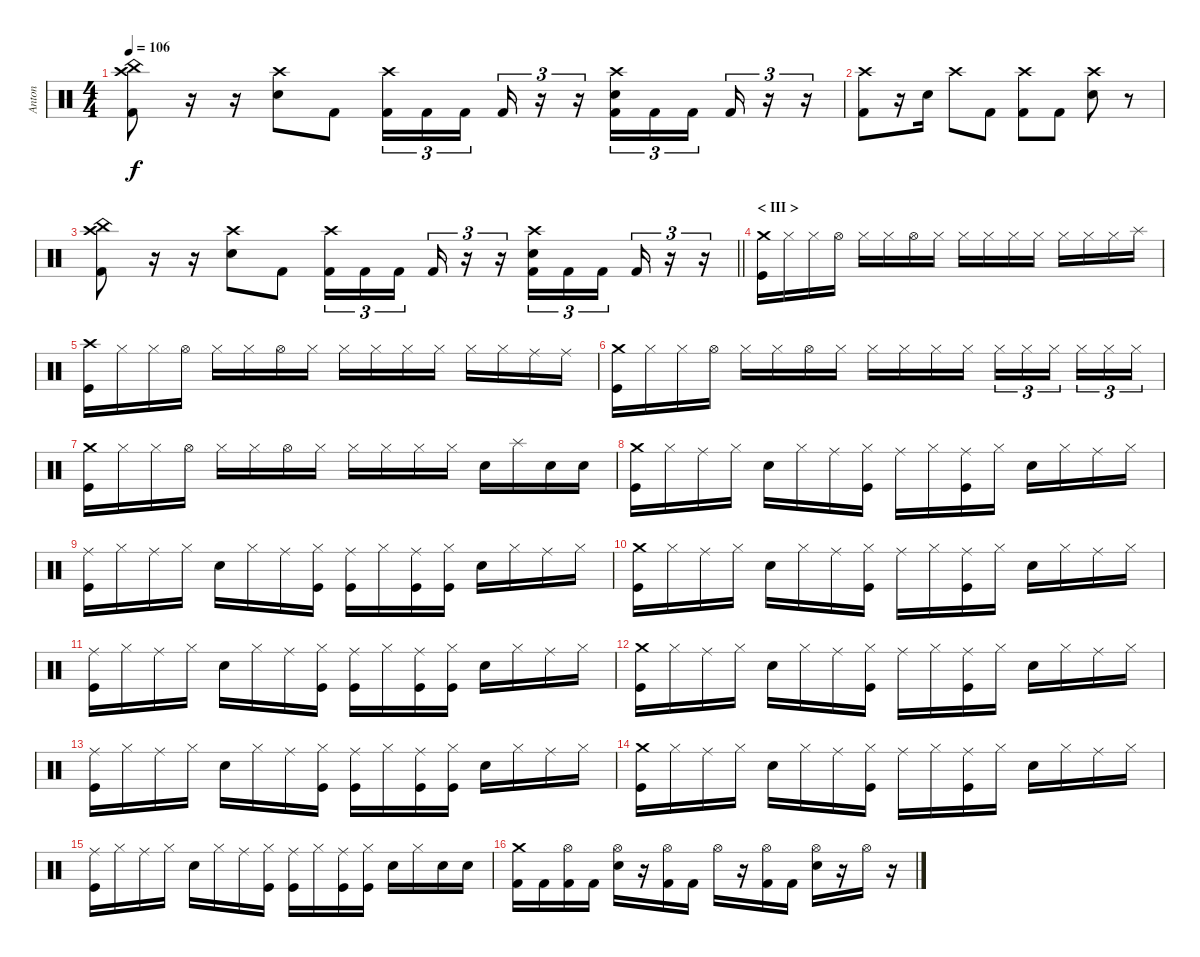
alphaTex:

\track ("Anton" "Anton") {instrument percussion}
\staff
\articulation defaults
\ts (4 4)
\tempo 106
\clef neutral
\ks c
("China (hit)" "Crash high (hit)" "Kick (hit) 2").8{dy f} r.16 r.16 ("Crash high (hit)" "Electric Snare (hit)").8 "Kick (hit) 2".8 ("Crash high (hit)" "Kick (hit) 2").16{tu (3 2)} "Kick (hit) 2".16{tu (3 2)} "Kick (hit) 2".16{tu (3 2) beam splitsecondary} "Kick (hit) 2".16{tu (3 2)} r.16{tu (3 2)} r.16{tu (3 2)} ("Crash high (hit)" "Electric Snare (hit)" "Kick (hit) 2").16{tu (3 2)} "Kick (hit) 2".16{tu (3 2)} "Kick (hit) 2".16{tu (3 2) beam splitsecondary} "Kick (hit) 2".16{tu (3 2)} r.16{tu (3 2)} r.16{tu (3 2)} |
("Crash high (hit)" "Kick (hit) 2").8 r.16 "Electric Snare (hit)".16 "Crash high (hit)".8 "Kick (hit) 2".8 ("Crash high (hit)" "Kick (hit) 2").8 "Kick (hit) 2".8 ("Crash high (hit)" "Electric Snare (hit)").8 r.8 |
\barLineRight lightlight
("China (hit)" "Crash high (hit)" "Kick (hit) 2").8 r.16 r.16 ("Crash high (hit)" "Electric Snare (hit)").8 "Kick (hit) 2".8 ("Crash high (hit)" "Kick (hit) 2").16{tu (3 2)} "Kick (hit) 2".16{tu (3 2)} "Kick (hit) 2".16{tu (3 2) beam splitsecondary} "Kick (hit) 2".16{tu (3 2)} r.16{tu (3 2)} r.16{tu (3 2)} ("Crash high (hit)" "Electric Snare (hit)" "Kick (hit) 2").16{tu (3 2)} "Kick (hit) 2".16{tu (3 2)} "Kick (hit) 2".16{tu (3 2) beam splitsecondary} "Kick (hit) 2".16{tu (3 2)} r.16{tu (3 2)} r.16{tu (3 2)} |
\section ("" "< III >")
("Crash medium (hit)" "Kick (hit)").16 "Hi-Hat (closed)".16 "Hi-Hat (closed)".16 "Hi-Hat (open)".16 "Hi-Hat (closed)".16 "Hi-Hat (closed)".16 "Hi-Hat (open)".16 "Hi-Hat (closed)".16 "Hi-Hat (closed)".16 "Hi-Hat (closed)".16 "Hi-Hat (closed)".16 "Hi-Hat (closed)".16 "Hi-Hat (closed)".16 "Hi-Hat (closed)".16 "Hi-Hat (closed)".16 "Splash (hit)".16 |
("Crash high (hit)" "Kick (hit)").16 "Hi-Hat (closed)".16 "Hi-Hat (closed)".16 "Hi-Hat (open)".16 "Hi-Hat (closed)".16 "Hi-Hat (closed)".16 "Hi-Hat (open)".16 "Hi-Hat (closed)".16 "Hi-Hat (closed)".16 "Hi-Hat (closed)".16 "Hi-Hat (closed)".16 "Hi-Hat (closed)".16 "Hi-Hat (closed)".16 "Hi-Hat (closed)".16 "Ride (middle)".16 "Ride (middle)".16 |
("Crash medium (hit)" "Kick (hit)").16 "Hi-Hat (closed)".16 "Hi-Hat (closed)".16 "Hi-Hat (open)".16 "Hi-Hat (closed)".16 "Hi-Hat (closed)".16 "Hi-Hat (open)".16 "Hi-Hat (closed)".16 "Hi-Hat (closed)".16 "Hi-Hat (closed)".16 "Hi-Hat (closed)".16 "Hi-Hat (closed)".16 "Hi-Hat (closed)".16{tu (3 2)} "Hi-Hat (closed)".16{tu (3 2)} "Hi-Hat (closed)".16{tu (3 2) beam splitsecondary} "Hi-Hat (closed)".16{tu (3 2)} "Hi-Hat (closed)".16{tu (3 2)} "Hi-Hat (closed)".16{tu (3 2)} |
("Crash medium (hit)" "Kick (hit)").16 "Hi-Hat (closed)".16 "Hi-Hat (closed)".16 "Hi-Hat (open)".16 "Hi-Hat (closed)".16 "Hi-Hat (closed)".16 "Hi-Hat (open)".16 "Hi-Hat (closed)".16 "Hi-Hat (closed)".16 "Hi-Hat (closed)".16 "Hi-Hat (closed)".16 "Hi-Hat (closed)".16 "Electric Snare (hit)".16 "Splash (hit)".16 "Electric Snare (hit)".16 "Electric Snare (hit)".16 |
("Crash medium (hit)" "Kick (hit)").16 "Hi-Hat (closed)".16 "Ride (middle)".16 "Hi-Hat (closed)".16 "Electric Snare (hit)".16 "Hi-Hat (closed)".16 "Ride (middle)".16 ("Hi-Hat (closed)" "Kick (hit)").16 "Ride (middle)".16 "Hi-Hat (closed)".16 ("Ride (middle)" "Kick (hit)").16 "Hi-Hat (closed)".16 "Electric Snare (hit)".16 "Hi-Hat (closed)".16 "Ride (middle)".16 "Hi-Hat (closed)".16 |
("Ride (middle)" "Kick (hit)").16 "Hi-Hat (closed)".16 "Ride (middle)".16 "Hi-Hat (closed)".16 "Electric Snare (hit)".16 "Hi-Hat (closed)".16 "Ride (middle)".16 ("Hi-Hat (closed)" "Kick (hit)").16 ("Ride (middle)" "Kick (hit)").16 "Hi-Hat (closed)".16 ("Ride (middle)" "Kick (hit)").16 ("Hi-Hat (closed)" "Kick (hit)").16 "Electric Snare (hit)".16 "Hi-Hat (closed)".16 "Ride (middle)".16 "Hi-Hat (closed)".16 |
("Crash medium (hit)" "Kick (hit)").16 "Hi-Hat (closed)".16 "Ride (middle)".16 "Hi-Hat (closed)".16 "Electric Snare (hit)".16 "Hi-Hat (closed)".16 "Ride (middle)".16 ("Hi-Hat (closed)" "Kick (hit)").16 "Ride (middle)".16 "Hi-Hat (closed)".16 ("Ride (middle)" "Kick (hit)").16 "Hi-Hat (closed)".16 "Electric Snare (hit)".16 "Hi-Hat (closed)".16 "Ride (middle)".16 "Hi-Hat (closed)".16 |
("Ride (middle)" "Kick (hit)").16 "Hi-Hat (closed)".16 "Ride (middle)".16 "Hi-Hat (closed)".16 "Electric Snare (hit)".16 "Hi-Hat (closed)".16 "Ride (middle)".16 ("Hi-Hat (closed)" "Kick (hit)").16 ("Ride (middle)" "Kick (hit)").16 "Hi-Hat (closed)".16 ("Ride (middle)" "Kick (hit)").16 ("Hi-Hat (closed)" "Kick (hit)").16 "Electric Snare (hit)".16 "Hi-Hat (closed)".16 "Ride (middle)".16 "Hi-Hat (closed)".16 |
("Crash medium (hit)" "Kick (hit)").16 "Hi-Hat (closed)".16 "Ride (middle)".16 "Hi-Hat (closed)".16 "Electric Snare (hit)".16 "Hi-Hat (closed)".16 "Ride (middle)".16 ("Hi-Hat (closed)" "Kick (hit)").16 "Ride (middle)".16 "Hi-Hat (closed)".16 ("Ride (middle)" "Kick (hit)").16 "Hi-Hat (closed)".16 "Electric Snare (hit)".16 "Hi-Hat (closed)".16 "Ride (middle)".16 "Hi-Hat (closed)".16 |
("Ride (middle)" "Kick (hit)").16 "Hi-Hat (closed)".16 "Ride (middle)".16 "Hi-Hat (closed)".16 "Electric Snare (hit)".16 "Hi-Hat (closed)".16 "Ride (middle)".16 ("Hi-Hat (closed)" "Kick (hit)").16 ("Ride (middle)" "Kick (hit)").16 "Hi-Hat (closed)".16 ("Ride (middle)" "Kick (hit)").16 ("Hi-Hat (closed)" "Kick (hit)").16 "Electric Snare (hit)".16 "Hi-Hat (closed)".16 "Ride (middle)".16 "Hi-Hat (closed)".16 |
("Crash medium (hit)" "Kick (hit)").16 "Hi-Hat (closed)".16 "Ride (middle)".16 "Hi-Hat (closed)".16 "Electric Snare (hit)".16 "Hi-Hat (closed)".16 "Ride (middle)".16 ("Hi-Hat (closed)" "Kick (hit)").16 "Ride (middle)".16 "Hi-Hat (closed)".16 ("Ride (middle)" "Kick (hit)").16 "Hi-Hat (closed)".16 "Electric Snare (hit)".16 "Hi-Hat (closed)".16 "Ride (middle)".16 "Hi-Hat (closed)".16 |
("Ride (middle)" "Kick (hit)").16 "Hi-Hat (closed)".16 "Ride (middle)".16 "Hi-Hat (closed)".16 "Electric Snare (hit)".16 "Hi-Hat (closed)".16 "Ride (middle)".16 ("Hi-Hat (closed)" "Kick (hit)").16 ("Ride (middle)" "Kick (hit)").16 "Hi-Hat (closed)".16 ("Ride (middle)" "Kick (hit)").16 ("Hi-Hat (closed)" "Kick (hit)").16 "Electric Snare (hit)".16 "Hi-Hat (closed)".16 "Electric Snare (hit)".16 "Electric Snare (hit)".16 |
("Crash medium (hit)" "Kick (hit) 2").16 "Kick (hit) 2".16 ("Hi-Hat (open)" "Kick (hit) 2").16 "Kick (hit) 2".16 ("Hi-Hat (open)" "Electric Snare (hit)").16 r.16 ("Hi-Hat (open)" "Kick (hit) 2").16 "Kick (hit) 2".16 "Hi-Hat (open)".16 r.16 ("Hi-Hat (open)" "Kick (hit) 2").16 "Kick (hit) 2".16 ("Hi-Hat (open)" "Electric Snare (hit)").16 r.16 "Hi-Hat (open)".16 r.16
